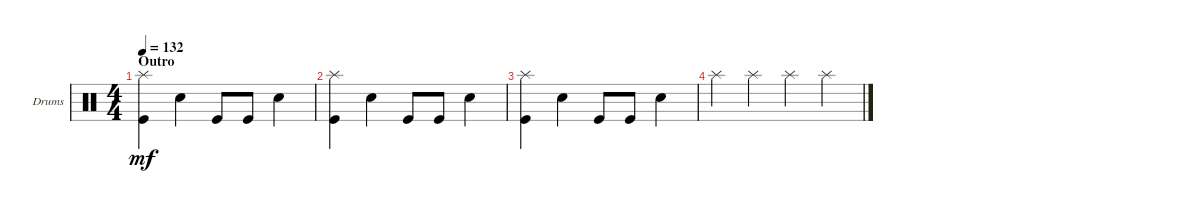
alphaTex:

\defaultSystemsLayout 4
\bracketExtendMode groupsimilarinstruments
\firstSystemTrackNameOrientation horizontal
\otherSystemsTrackNameOrientation horizontal
\track ("Drumkit" "Drums") {instrument percussion}
\staff {score}
\articulation defaults
\ts (4 4)
\section ("" "Outro")
\tempo 132
\clef neutral
\scale
0.333333
\ks c
("Kick (hit)" "Splash (hit)").4{dy mf} "Snare (hit) 2".4 "Kick (hit)".8 "Kick (hit)".8 "Snare (hit) 2".4 |
("Kick (hit)" "Splash (hit)").4 "Snare (hit) 2".4 "Kick (hit)".8 "Kick (hit)".8 "Snare (hit) 2".4 |
("Kick (hit)" "Splash (hit)").4 "Snare (hit) 2".4 "Kick (hit)".8 "Kick (hit)".8 "Snare (hit) 2".4 |
"Splash (hit)".4 "Splash (hit)".4 "Splash (hit)".4 "Splash (hit)".4
